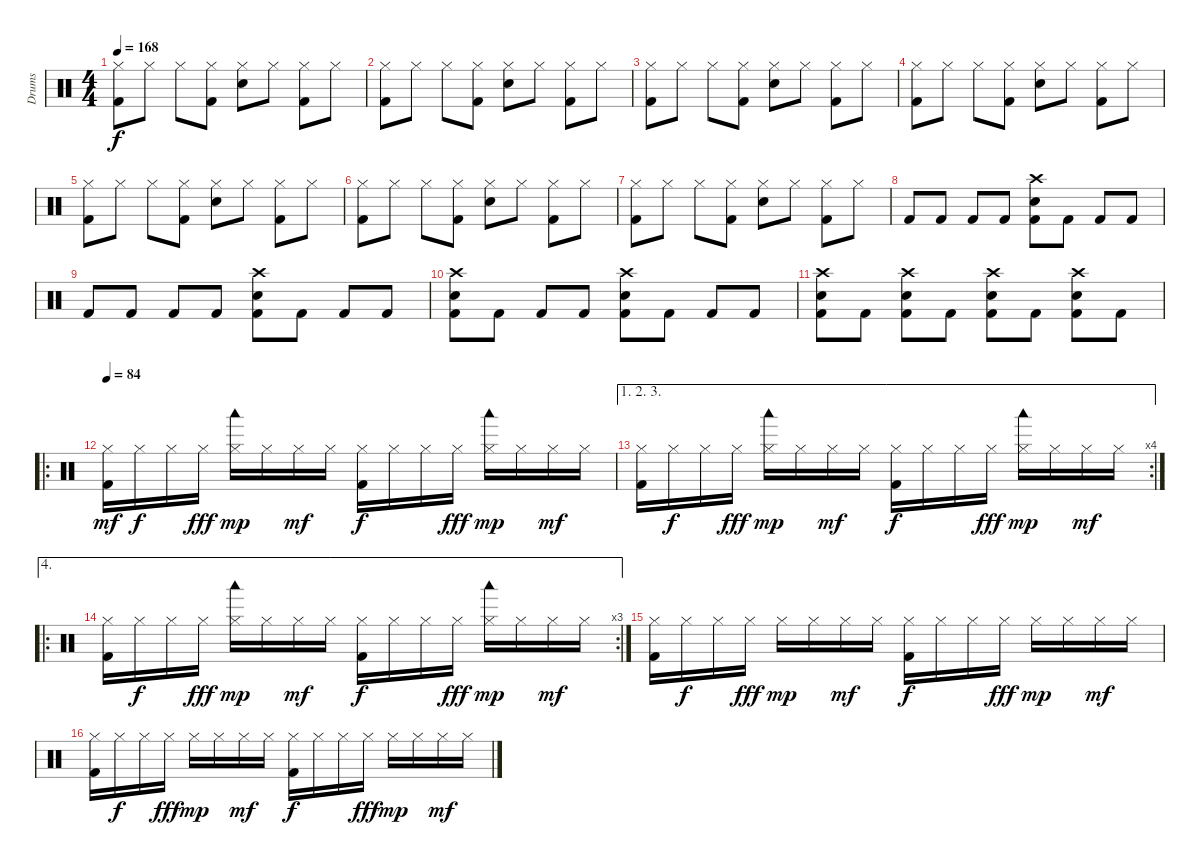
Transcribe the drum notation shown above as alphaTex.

\track ("Drums" "Drums") {instrument percussion}
\staff {score}
\articulation defaults
\ts (4 4)
\tempo 168
\clef neutral
\ks c
("Kick (hit) 2" "Hi-Hat (closed)").8{dy f} "Hi-Hat (closed)".8 "Hi-Hat (closed)".8 ("Kick (hit) 2" "Hi-Hat (closed)").8 ("Snare (hit) 2" "Hi-Hat (closed)").8 "Hi-Hat (closed)".8 ("Kick (hit) 2" "Hi-Hat (closed)").8 "Hi-Hat (closed)".8 |
("Kick (hit) 2" "Hi-Hat (closed)").8 "Hi-Hat (closed)".8 "Hi-Hat (closed)".8 ("Kick (hit) 2" "Hi-Hat (closed)").8 ("Snare (hit) 2" "Hi-Hat (closed)").8 "Hi-Hat (closed)".8 ("Kick (hit) 2" "Hi-Hat (closed)").8 "Hi-Hat (closed)".8 |
("Kick (hit) 2" "Hi-Hat (closed)").8 "Hi-Hat (closed)".8 "Hi-Hat (closed)".8 ("Kick (hit) 2" "Hi-Hat (closed)").8 ("Snare (hit) 2" "Hi-Hat (closed)").8 "Hi-Hat (closed)".8 ("Kick (hit) 2" "Hi-Hat (closed)").8 "Hi-Hat (closed)".8 |
("Kick (hit) 2" "Hi-Hat (closed)").8 "Hi-Hat (closed)".8 "Hi-Hat (closed)".8 ("Kick (hit) 2" "Hi-Hat (closed)").8 ("Snare (hit) 2" "Hi-Hat (closed)").8 "Hi-Hat (closed)".8 ("Kick (hit) 2" "Hi-Hat (closed)").8 "Hi-Hat (closed)".8 |
("Kick (hit) 2" "Hi-Hat (closed)").8 "Hi-Hat (closed)".8 "Hi-Hat (closed)".8 ("Kick (hit) 2" "Hi-Hat (closed)").8 ("Snare (hit) 2" "Hi-Hat (closed)").8 "Hi-Hat (closed)".8 ("Kick (hit) 2" "Hi-Hat (closed)").8 "Hi-Hat (closed)".8 |
("Kick (hit) 2" "Hi-Hat (closed)").8 "Hi-Hat (closed)".8 "Hi-Hat (closed)".8 ("Kick (hit) 2" "Hi-Hat (closed)").8 ("Snare (hit) 2" "Hi-Hat (closed)").8 "Hi-Hat (closed)".8 ("Kick (hit) 2" "Hi-Hat (closed)").8 "Hi-Hat (closed)".8 |
("Kick (hit) 2" "Hi-Hat (closed)").8 "Hi-Hat (closed)".8 "Hi-Hat (closed)".8 ("Kick (hit) 2" "Hi-Hat (closed)").8 ("Snare (hit) 2" "Hi-Hat (closed)").8 "Hi-Hat (closed)".8 ("Kick (hit) 2" "Hi-Hat (closed)").8 "Hi-Hat (closed)".8 |
"Kick (hit) 2".8 "Kick (hit) 2".8 "Kick (hit) 2".8 "Kick (hit) 2".8 ("Kick (hit) 2" "Snare (hit) 2" "Crash high (hit)").8 "Kick (hit) 2".8 "Kick (hit) 2".8 "Kick (hit) 2".8 |
"Kick (hit) 2".8 "Kick (hit) 2".8 "Kick (hit) 2".8 "Kick (hit) 2".8 ("Kick (hit) 2" "Snare (hit) 2" "Crash high (hit)").8 "Kick (hit) 2".8 "Kick (hit) 2".8 "Kick (hit) 2".8 |
("Kick (hit) 2" "Snare (hit) 2" "Crash high (hit)").8 "Kick (hit) 2".8 "Kick (hit) 2".8 "Kick (hit) 2".8 ("Kick (hit) 2" "Snare (hit) 2" "Crash high (hit)").8 "Kick (hit) 2".8 "Kick (hit) 2".8 "Kick (hit) 2".8 |
("Kick (hit) 2" "Snare (hit) 2" "Crash high (hit)").8 "Kick (hit) 2".8 ("Kick (hit) 2" "Snare (hit) 2" "Crash high (hit)").8 "Kick (hit) 2".8 ("Kick (hit) 2" "Snare (hit) 2" "Crash high (hit)").8 "Kick (hit) 2".8 ("Kick (hit) 2" "Snare (hit) 2" "Crash high (hit)").8 "Kick (hit) 2".8 |
\ro
\tempo 84
("Kick (hit) 2" "Hi-Hat (closed)").16{dy mf} "Hi-Hat (closed)".16{dy f} "Hi-Hat (closed)".16 "Hi-Hat (closed)".16{dy fff} ("Woodblock low (hit)" "Hi-Hat (closed)").16{dy mp} "Hi-Hat (closed)".16 "Hi-Hat (closed)".16{dy mf} "Hi-Hat (closed)".16 ("Kick (hit) 2" "Hi-Hat (closed)").16{dy f} "Hi-Hat (closed)".16 "Hi-Hat (closed)".16 "Hi-Hat (closed)".16{dy fff} ("Woodblock low (hit)" "Hi-Hat (closed)").16{dy mp} "Hi-Hat (closed)".16 "Hi-Hat (closed)".16{dy mf} "Hi-Hat (closed)".16 |
\ae (1 2 3)
\rc 4
("Kick (hit) 2" "Hi-Hat (closed)").16 "Hi-Hat (closed)".16{dy f} "Hi-Hat (closed)".16 "Hi-Hat (closed)".16{dy fff} ("Woodblock low (hit)" "Hi-Hat (closed)").16{dy mp} "Hi-Hat (closed)".16 "Hi-Hat (closed)".16{dy mf} "Hi-Hat (closed)".16 ("Kick (hit) 2" "Hi-Hat (closed)").16{dy f} "Hi-Hat (closed)".16 "Hi-Hat (closed)".16 "Hi-Hat (closed)".16{dy fff} ("Woodblock low (hit)" "Hi-Hat (closed)").16{dy mp} "Hi-Hat (closed)".16 "Hi-Hat (closed)".16{dy mf} "Hi-Hat (closed)".16 |
\ae 4
\ro
\rc 3
("Kick (hit) 2" "Hi-Hat (closed)").16 "Hi-Hat (closed)".16{dy f} "Hi-Hat (closed)".16 "Hi-Hat (closed)".16{dy fff} ("Woodblock low (hit)" "Hi-Hat (closed)").16{dy mp} "Hi-Hat (closed)".16 "Hi-Hat (closed)".16{dy mf} "Hi-Hat (closed)".16 ("Kick (hit) 2" "Hi-Hat (closed)").16{dy f} "Hi-Hat (closed)".16 "Hi-Hat (closed)".16 "Hi-Hat (closed)".16{dy fff} ("Woodblock low (hit)" "Hi-Hat (closed)").16{dy mp} "Hi-Hat (closed)".16 "Hi-Hat (closed)".16{dy mf} "Hi-Hat (closed)".16 |
("Kick (hit) 2" "Hi-Hat (closed)").16 "Hi-Hat (closed)".16{dy f} "Hi-Hat (closed)".16 "Hi-Hat (closed)".16{dy fff} "Hi-Hat (closed)".16{dy mp} "Hi-Hat (closed)".16 "Hi-Hat (closed)".16{dy mf} "Hi-Hat (closed)".16 ("Kick (hit) 2" "Hi-Hat (closed)").16{dy f} "Hi-Hat (closed)".16 "Hi-Hat (closed)".16 "Hi-Hat (closed)".16{dy fff} "Hi-Hat (closed)".16{dy mp} "Hi-Hat (closed)".16 "Hi-Hat (closed)".16{dy mf} "Hi-Hat (closed)".16 |
("Kick (hit) 2" "Hi-Hat (closed)").16 "Hi-Hat (closed)".16{dy f} "Hi-Hat (closed)".16 "Hi-Hat (closed)".16{dy fff} "Hi-Hat (closed)".16{dy mp} "Hi-Hat (closed)".16 "Hi-Hat (closed)".16{dy mf} "Hi-Hat (closed)".16 ("Kick (hit) 2" "Hi-Hat (closed)").16{dy f} "Hi-Hat (closed)".16 "Hi-Hat (closed)".16 "Hi-Hat (closed)".16{dy fff} "Hi-Hat (closed)".16{dy mp} "Hi-Hat (closed)".16 "Hi-Hat (closed)".16{dy mf} "Hi-Hat (closed)".16
